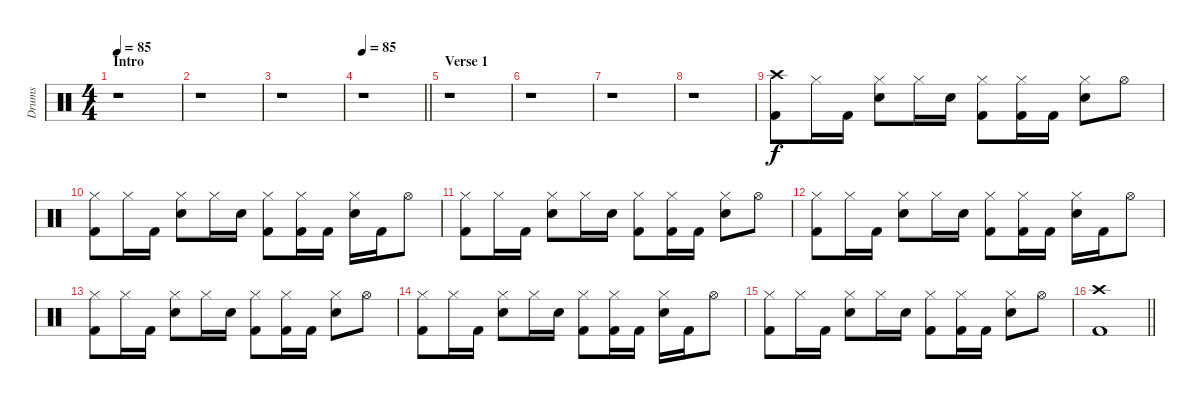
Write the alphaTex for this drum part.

\track ("Drums" "Drums") {instrument percussion}
\staff {score}
\articulation defaults
\ts (4 4)
\section ("" "Intro")
\tempo 85
\tempo 75
\tempo 85
\clef neutral
\ks c
r.1{dy f} |
r.1 |
r.1 |
\tempo 85
\barLineRight lightlight
r.1 |
\section ("" "Verse 1")
r.1 |
r.1 |
r.1 |
r.1 |
("Crash high (hit)" "Kick (hit) 2").8 "Hi-Hat (closed)".16 "Kick (hit) 2".16 ("Hi-Hat (closed)" "Electric Snare (hit)").8 "Hi-Hat (closed)".16 "Electric Snare (hit)".16 ("Hi-Hat (closed)" "Kick (hit) 2").8 ("Hi-Hat (closed)" "Kick (hit) 2").16 "Kick (hit) 2".16 ("Hi-Hat (closed)" "Electric Snare (hit)").8 "Hi-Hat (open)".8 |
("Hi-Hat (closed)" "Kick (hit) 2").8 "Hi-Hat (closed)".16 "Kick (hit) 2".16 ("Hi-Hat (closed)" "Electric Snare (hit)").8 "Hi-Hat (closed)".16 "Electric Snare (hit)".16 ("Hi-Hat (closed)" "Kick (hit) 2").8 ("Hi-Hat (closed)" "Kick (hit) 2").16 "Kick (hit) 2".16 ("Hi-Hat (closed)" "Electric Snare (hit)").16 "Kick (hit) 2".16 "Hi-Hat (open)".8 |
("Hi-Hat (closed)" "Kick (hit) 2").8 "Hi-Hat (closed)".16 "Kick (hit) 2".16 ("Hi-Hat (closed)" "Electric Snare (hit)").8 "Hi-Hat (closed)".16 "Electric Snare (hit)".16 ("Hi-Hat (closed)" "Kick (hit) 2").8 ("Hi-Hat (closed)" "Kick (hit) 2").16 "Kick (hit) 2".16 ("Hi-Hat (closed)" "Electric Snare (hit)").8 "Hi-Hat (open)".8 |
("Hi-Hat (closed)" "Kick (hit) 2").8 "Hi-Hat (closed)".16 "Kick (hit) 2".16 ("Hi-Hat (closed)" "Electric Snare (hit)").8 "Hi-Hat (closed)".16 "Electric Snare (hit)".16 ("Hi-Hat (closed)" "Kick (hit) 2").8 ("Hi-Hat (closed)" "Kick (hit) 2").16 "Kick (hit) 2".16 ("Hi-Hat (closed)" "Electric Snare (hit)").16 "Kick (hit) 2".16 "Hi-Hat (open)".8 |
("Hi-Hat (closed)" "Kick (hit) 2").8 "Hi-Hat (closed)".16 "Kick (hit) 2".16 ("Hi-Hat (closed)" "Electric Snare (hit)").8 "Hi-Hat (closed)".16 "Electric Snare (hit)".16 ("Hi-Hat (closed)" "Kick (hit) 2").8 ("Hi-Hat (closed)" "Kick (hit) 2").16 "Kick (hit) 2".16 ("Hi-Hat (closed)" "Electric Snare (hit)").8 "Hi-Hat (open)".8 |
("Hi-Hat (closed)" "Kick (hit) 2").8 "Hi-Hat (closed)".16 "Kick (hit) 2".16 ("Hi-Hat (closed)" "Electric Snare (hit)").8 "Hi-Hat (closed)".16 "Electric Snare (hit)".16 ("Hi-Hat (closed)" "Kick (hit) 2").8 ("Hi-Hat (closed)" "Kick (hit) 2").16 "Kick (hit) 2".16 ("Hi-Hat (closed)" "Electric Snare (hit)").16 "Kick (hit) 2".16 "Hi-Hat (open)".8 |
("Hi-Hat (closed)" "Kick (hit) 2").8 "Hi-Hat (closed)".16 "Kick (hit) 2".16 ("Hi-Hat (closed)" "Electric Snare (hit)").8 "Hi-Hat (closed)".16 "Electric Snare (hit)".16 ("Hi-Hat (closed)" "Kick (hit) 2").8 ("Hi-Hat (closed)" "Kick (hit) 2").16 "Kick (hit) 2".16 ("Hi-Hat (closed)" "Electric Snare (hit)").8 "Hi-Hat (open)".8 |
\barLineRight lightlight
("Crash high (hit)" "Kick (hit) 2").1
